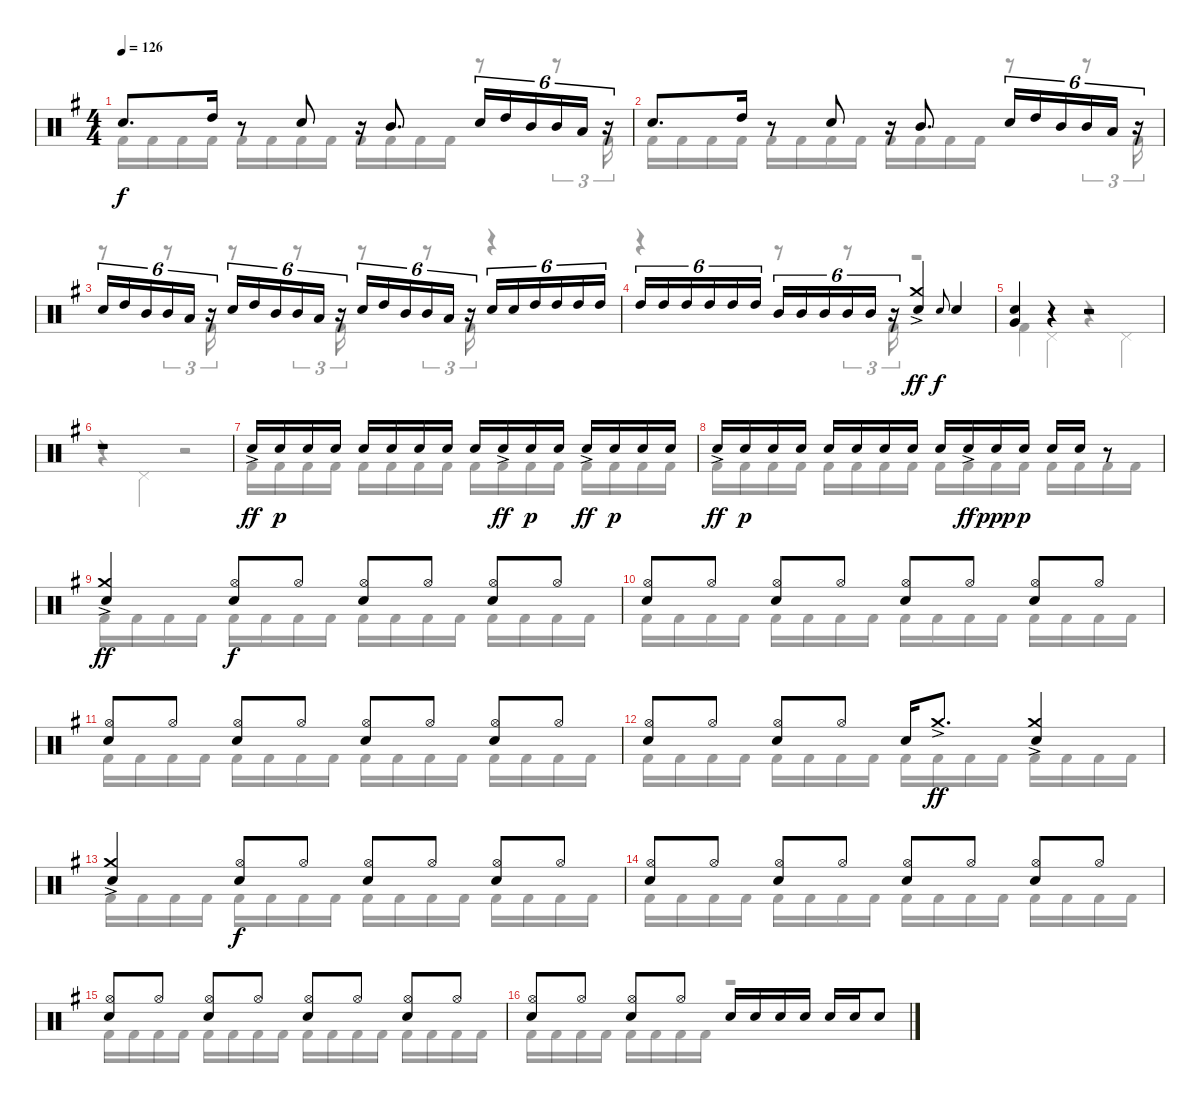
\track "" {instrument percussion}
\staff {score}
\articulation defaults
\voice
\ts (4 4)
\tempo 126
\clef neutral
\ks g "Electric Snare (hit)".8{d dy f} "High Tom (hit)".16
r.8 "Electric Snare (hit)".8 r.16 "Mid Tom (hit)".8{d} "Electric Snare (hit)".16{tu (6 4)} "High Tom (hit)".16{tu (6 4)} "Mid Tom (hit)".16{tu (6 4)} "Mid Tom (hit)".16{tu (6 4)} "Low Tom (hit)".16{tu (6 4)} r.16{tu (6 4)} |
"Electric Snare (hit)".8{d} "High Tom (hit)".16 r.8 "Electric Snare (hit)".8 r.16 "Mid Tom (hit)".8{d} "Electric Snare (hit)".16{tu (6 4)} "High Tom (hit)".16{tu (6 4)} "Mid Tom (hit)".16{tu (6 4)} "Mid Tom (hit)".16{tu (6 4)} "Low Tom (hit)".16{tu (6 4)} r.16{tu (6 4)} |
"Electric Snare (hit)".16{tu (6 4)} "High Tom (hit)".16{tu (6 4)} "Mid Tom (hit)".16{tu (6 4)} "Mid Tom (hit)".16{tu (6 4)} "Low Tom (hit)".16{tu (6 4)} r.16{tu (6 4)} "Electric Snare (hit)".16{tu (6 4)} "High Tom (hit)".16{tu (6 4)} "Mid Tom (hit)".16{tu (6 4)} "Mid Tom (hit)".16{tu (6 4)} "Low Tom (hit)".16{tu (6 4)} r.16{tu (6 4)} "Electric Snare (hit)".16{tu (6 4)} "High Tom (hit)".16{tu (6 4)} "Mid Tom (hit)".16{tu (6 4)} "Mid Tom (hit)".16{tu (6 4)} "Low Tom (hit)".16{tu (6 4)} r.16{tu (6 4)} "Electric Snare (hit)".16{tu (6 4)} "Electric Snare (hit)".16{tu (6 4)} "High Tom (hit)".16{tu (6 4)} "High Tom (hit)".16{tu (6 4)} "High Tom (hit)".16{tu (6 4)} "High Tom (hit)".16{tu (6 4)} |
"High Tom (hit)".16{tu (6 4)} "High Tom (hit)".16{tu (6 4)} "High Tom (hit)".16{tu (6 4)} "High Tom (hit)".16{tu (6 4)} "High Tom (hit)".16{tu (6 4)} "High Tom (hit)".16{tu (6 4)} "Mid Tom (hit)".16{tu (6 4)} "Mid Tom (hit)".16{tu (6 4)} "Mid Tom (hit)".16{tu (6 4)} "Mid Tom (hit)".16{tu (6 4)} "Mid Tom (hit)".16{tu (6 4)} r.16{tu (6 4)} ("Electric Snare (hit)" "Crash medium (hit)"{ac}).4{dy ff} "Electric Snare (hit)".8{gr onbeat dy f} "Electric Snare (hit)".4 |
("Electric Snare (hit)" "Very Low Tom (hit)").4 r.4 r.2 |
r.1 |
"Electric Snare (hit)"{ac}.16{dy ff} "Electric Snare (hit)".16{dy p} "Electric Snare (hit)".16 "Electric Snare (hit)".16 "Electric Snare (hit)".16 "Electric Snare (hit)".16 "Electric Snare (hit)".16 "Electric Snare (hit)".16 "Electric Snare (hit)".16 "Electric Snare (hit)"{ac}.16{dy ff} "Electric Snare (hit)".16{dy p} "Electric Snare (hit)".16 "Electric Snare (hit)"{ac}.16{dy ff} "Electric Snare (hit)".16{dy p} "Electric Snare (hit)".16 "Electric Snare (hit)".16 |
"Electric Snare (hit)"{ac}.16{dy ff} "Electric Snare (hit)".16{dy p} "Electric Snare (hit)".16 "Electric Snare (hit)".16 "Electric Snare (hit)".16 "Electric Snare (hit)".16 "Electric Snare (hit)".16 "Electric Snare (hit)".16 "Electric Snare (hit)".16 "Electric Snare (hit)"{ac}.16{dy ff} "Electric Snare (hit)".16{dy ppp} "Electric Snare (hit)".16{dy p} "Electric Snare (hit)".16 "Electric Snare (hit)".16 r.8 |
("Electric Snare (hit)" "Crash medium (hit)"{ac}).4{dy ff} ("Electric Snare (hit)" "Hi-Hat (open)").8{dy f} "Hi-Hat (open)".8 ("Electric Snare (hit)" "Hi-Hat (open)").8 "Hi-Hat (open)".8 ("Electric Snare (hit)" "Hi-Hat (open)").8 "Hi-Hat (open)".8 |
("Electric Snare (hit)" "Hi-Hat (open)").8 "Hi-Hat (open)".8 ("Electric Snare (hit)" "Hi-Hat (open)").8 "Hi-Hat (open)".8 ("Electric Snare (hit)" "Hi-Hat (open)").8 "Hi-Hat (open)".8 ("Electric Snare (hit)" "Hi-Hat (open)").8 "Hi-Hat (open)".8 |
("Electric Snare (hit)" "Hi-Hat (open)").8 "Hi-Hat (open)".8 ("Electric Snare (hit)" "Hi-Hat (open)").8 "Hi-Hat (open)".8 ("Electric Snare (hit)" "Hi-Hat (open)").8 "Hi-Hat (open)".8 ("Electric Snare (hit)" "Hi-Hat (open)").8 "Hi-Hat (open)".8 |
("Electric Snare (hit)" "Hi-Hat (open)").8 "Hi-Hat (open)".8 ("Electric Snare (hit)" "Hi-Hat (open)").8 "Hi-Hat (open)".8 "Electric Snare (hit)".16 "Crash medium (hit)"{ac}.8{d dy ff} ("Electric Snare (hit)" "Crash medium (hit)"{ac}).4 |
("Electric Snare (hit)" "Crash medium (hit)"{ac}).4 ("Electric Snare (hit)" "Hi-Hat (open)").8{dy f} "Hi-Hat (open)".8 ("Electric Snare (hit)" "Hi-Hat (open)").8 "Hi-Hat (open)".8 ("Electric Snare (hit)" "Hi-Hat (open)").8 "Hi-Hat (open)".8 |
("Electric Snare (hit)" "Hi-Hat (open)").8 "Hi-Hat (open)".8 ("Electric Snare (hit)" "Hi-Hat (open)").8 "Hi-Hat (open)".8 ("Electric Snare (hit)" "Hi-Hat (open)").8 "Hi-Hat (open)".8 ("Electric Snare (hit)" "Hi-Hat (open)").8 "Hi-Hat (open)".8 |
("Electric Snare (hit)" "Hi-Hat (open)").8 "Hi-Hat (open)".8 ("Electric Snare (hit)" "Hi-Hat (open)").8 "Hi-Hat (open)".8 ("Electric Snare (hit)" "Hi-Hat (open)").8 "Hi-Hat (open)".8 ("Electric Snare (hit)" "Hi-Hat (open)").8 "Hi-Hat (open)".8 |
("Electric Snare (hit)" "Hi-Hat (open)").8 "Hi-Hat (open)".8 ("Electric Snare (hit)" "Hi-Hat (open)").8 "Hi-Hat (open)".8 "Electric Snare (hit)".16 "Electric Snare (hit)".16 "Electric Snare (hit)".16 "Electric Snare (hit)".16 "Electric Snare (hit)".16 "Electric Snare (hit)".16 "Electric Snare (hit)".8
\voice
\clef neutral
\ottava regular
\simile none
\ks g "Kick (hit) 2".16{dy f} "Kick (hit) 2".16 "Kick (hit) 2".16 "Kick (hit) 2".16 "Kick (hit) 2".16 "Kick (hit) 2".16 "Kick (hit) 2".16 "Kick (hit) 2".16 "Kick (hit) 2".16 "Kick (hit) 2".16 "Kick (hit) 2".16 "Kick (hit) 2".16
r.8 r.8{tu (3 2)} "Kick (hit) 2".16{tu (3 2)} |
"Kick (hit) 2".16 "Kick (hit) 2".16 "Kick (hit) 2".16 "Kick (hit) 2".16 "Kick (hit) 2".16 "Kick (hit) 2".16 "Kick (hit) 2".16 "Kick (hit) 2".16 "Kick (hit) 2".16 "Kick (hit) 2".16 "Kick (hit) 2".16 "Kick (hit) 2".16 r.8 r.8{tu (3 2)} "Kick (hit) 2".16{tu (3 2)} |
r.8 r.8{tu (3 2)} "Kick (hit) 2".16{tu (3 2)} r.8 r.8{tu (3 2)} "Kick (hit) 2".16{tu (3 2)} r.8 r.8{tu (3 2)} "Kick (hit) 2".16{tu (3 2)} r.4 |
r.4 r.8 r.8{tu (3 2)} "Kick (hit) 2".16{tu (3 2)} r.2 |
"Kick (hit) 2".4 "Pedal Hi-Hat (hit)".4 r.4 "Pedal Hi-Hat (hit)".4 |
r.4 "Pedal Hi-Hat (hit)".4 r.2 |
"Kick (hit) 2".16 "Kick (hit) 2".16 "Kick (hit) 2".16 "Kick (hit) 2".16 "Kick (hit) 2".16 "Kick (hit) 2".16 "Kick (hit) 2".16 "Kick (hit) 2".16 "Kick (hit) 2".16 "Kick (hit) 2".16 "Kick (hit) 2".16 "Kick (hit) 2".16 "Kick (hit) 2".16 "Kick (hit) 2".16 "Kick (hit) 2".16 "Kick (hit) 2".16 |
"Kick (hit) 2".16 "Kick (hit) 2".16 "Kick (hit) 2".16 "Kick (hit) 2".16 "Kick (hit) 2".16 "Kick (hit) 2".16 "Kick (hit) 2".16 "Kick (hit) 2".16 "Kick (hit) 2".16 "Kick (hit) 2".16 "Kick (hit) 2".16 "Kick (hit) 2".16 "Kick (hit) 2".16 "Kick (hit) 2".16 "Kick (hit) 2".16 "Kick (hit) 2".16 |
"Kick (hit) 2".16 "Kick (hit) 2".16 "Kick (hit) 2".16 "Kick (hit) 2".16 "Kick (hit) 2".16 "Kick (hit) 2".16 "Kick (hit) 2".16 "Kick (hit) 2".16 "Kick (hit) 2".16 "Kick (hit) 2".16 "Kick (hit) 2".16 "Kick (hit) 2".16 "Kick (hit) 2".16 "Kick (hit) 2".16 "Kick (hit) 2".16 "Kick (hit) 2".16 |
"Kick (hit) 2".16 "Kick (hit) 2".16 "Kick (hit) 2".16 "Kick (hit) 2".16 "Kick (hit) 2".16 "Kick (hit) 2".16 "Kick (hit) 2".16 "Kick (hit) 2".16 "Kick (hit) 2".16 "Kick (hit) 2".16 "Kick (hit) 2".16 "Kick (hit) 2".16 "Kick (hit) 2".16 "Kick (hit) 2".16 "Kick (hit) 2".16 "Kick (hit) 2".16 |
"Kick (hit) 2".16 "Kick (hit) 2".16 "Kick (hit) 2".16 "Kick (hit) 2".16 "Kick (hit) 2".16 "Kick (hit) 2".16 "Kick (hit) 2".16 "Kick (hit) 2".16 "Kick (hit) 2".16 "Kick (hit) 2".16 "Kick (hit) 2".16 "Kick (hit) 2".16 "Kick (hit) 2".16 "Kick (hit) 2".16 "Kick (hit) 2".16 "Kick (hit) 2".16 |
"Kick (hit) 2".16 "Kick (hit) 2".16 "Kick (hit) 2".16 "Kick (hit) 2".16 "Kick (hit) 2".16 "Kick (hit) 2".16 "Kick (hit) 2".16 "Kick (hit) 2".16 "Kick (hit) 2".16 "Kick (hit) 2".16 "Kick (hit) 2".16 "Kick (hit) 2".16 "Kick (hit) 2".16 "Kick (hit) 2".16 "Kick (hit) 2".16 "Kick (hit) 2".16 |
"Kick (hit) 2".16 "Kick (hit) 2".16 "Kick (hit) 2".16 "Kick (hit) 2".16 "Kick (hit) 2".16 "Kick (hit) 2".16 "Kick (hit) 2".16 "Kick (hit) 2".16 "Kick (hit) 2".16 "Kick (hit) 2".16 "Kick (hit) 2".16 "Kick (hit) 2".16 "Kick (hit) 2".16 "Kick (hit) 2".16 "Kick (hit) 2".16 "Kick (hit) 2".16 |
"Kick (hit) 2".16 "Kick (hit) 2".16 "Kick (hit) 2".16 "Kick (hit) 2".16 "Kick (hit) 2".16 "Kick (hit) 2".16 "Kick (hit) 2".16 "Kick (hit) 2".16 "Kick (hit) 2".16 "Kick (hit) 2".16 "Kick (hit) 2".16 "Kick (hit) 2".16 "Kick (hit) 2".16 "Kick (hit) 2".16 "Kick (hit) 2".16 "Kick (hit) 2".16 |
"Kick (hit) 2".16 "Kick (hit) 2".16 "Kick (hit) 2".16 "Kick (hit) 2".16 "Kick (hit) 2".16 "Kick (hit) 2".16 "Kick (hit) 2".16 "Kick (hit) 2".16 "Kick (hit) 2".16 "Kick (hit) 2".16 "Kick (hit) 2".16 "Kick (hit) 2".16 "Kick (hit) 2".16 "Kick (hit) 2".16 "Kick (hit) 2".16 "Kick (hit) 2".16 |
"Kick (hit) 2".16 "Kick (hit) 2".16 "Kick (hit) 2".16 "Kick (hit) 2".16 "Kick (hit) 2".16 "Kick (hit) 2".16 "Kick (hit) 2".16 "Kick (hit) 2".16 r.2
